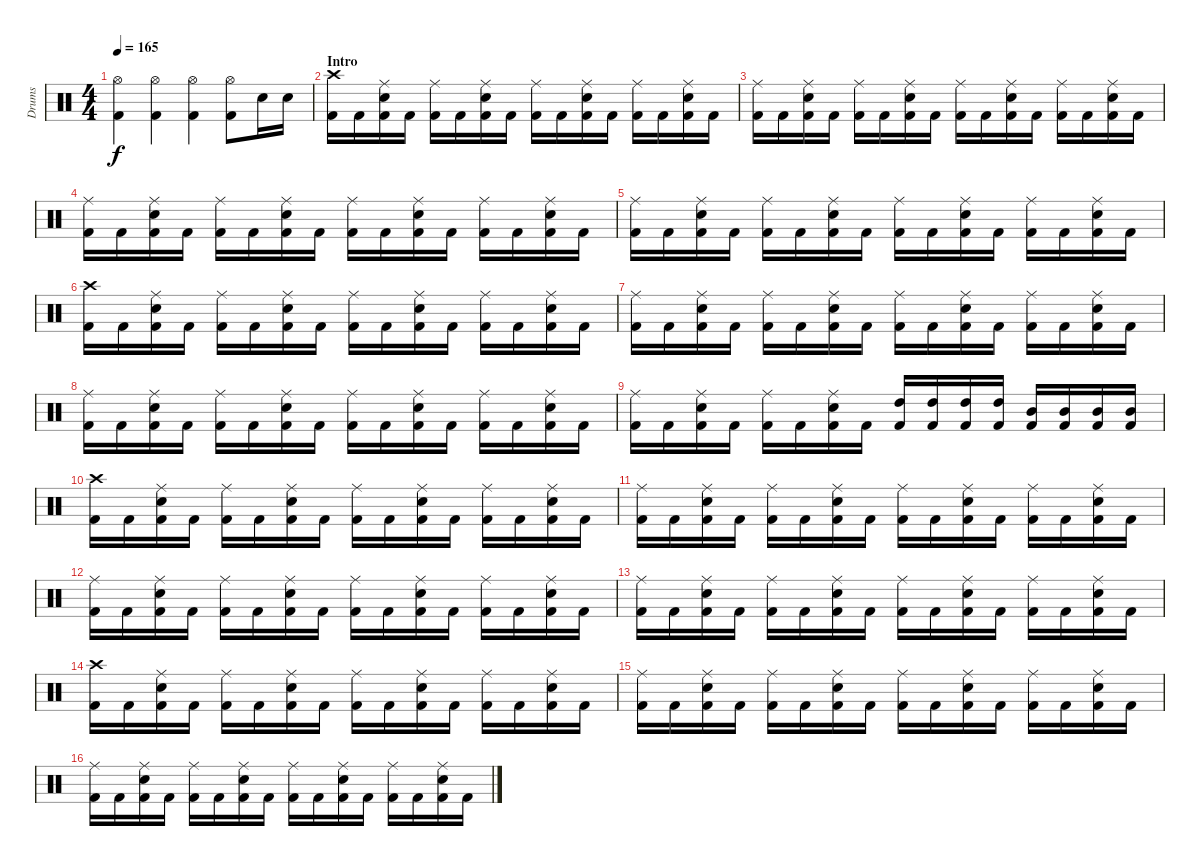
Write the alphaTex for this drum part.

\track ("Drums" "Drums") {instrument percussion}
\staff {score}
\articulation defaults
\ts (4 4)
\tempo 165
\clef neutral
\ks c
("Hi-Hat (open)" "Kick (hit) 2").4{dy f} ("Hi-Hat (open)" "Kick (hit) 2").4 ("Hi-Hat (open)" "Kick (hit) 2").4 ("Hi-Hat (open)" "Kick (hit) 2").8 "Electric Snare (hit)".16 "Electric Snare (hit)".16 |
\section ("" "Intro")
("Crash high (hit)" "Kick (hit) 2").16 "Kick (hit) 2".16 ("Ride (middle)" "Electric Snare (hit)" "Kick (hit) 2").16 "Kick (hit) 2".16 ("Ride (middle)" "Kick (hit) 2").16 "Kick (hit) 2".16 ("Ride (middle)" "Electric Snare (hit)" "Kick (hit) 2").16 "Kick (hit) 2".16 ("Ride (middle)" "Kick (hit) 2").16 "Kick (hit) 2".16 ("Ride (middle)" "Electric Snare (hit)" "Kick (hit) 2").16 "Kick (hit) 2".16 ("Ride (middle)" "Kick (hit) 2").16 "Kick (hit) 2".16 ("Ride (middle)" "Electric Snare (hit)" "Kick (hit) 2").16 "Kick (hit) 2".16 |
("Ride (middle)" "Kick (hit) 2").16 "Kick (hit) 2".16 ("Ride (middle)" "Electric Snare (hit)" "Kick (hit) 2").16 "Kick (hit) 2".16 ("Ride (middle)" "Kick (hit) 2").16 "Kick (hit) 2".16 ("Ride (middle)" "Electric Snare (hit)" "Kick (hit) 2").16 "Kick (hit) 2".16 ("Ride (middle)" "Kick (hit) 2").16 "Kick (hit) 2".16 ("Ride (middle)" "Electric Snare (hit)" "Kick (hit) 2").16 "Kick (hit) 2".16 ("Ride (middle)" "Kick (hit) 2").16 "Kick (hit) 2".16 ("Ride (middle)" "Electric Snare (hit)" "Kick (hit) 2").16 "Kick (hit) 2".16 |
("Ride (middle)" "Kick (hit) 2").16 "Kick (hit) 2".16 ("Ride (middle)" "Electric Snare (hit)" "Kick (hit) 2").16 "Kick (hit) 2".16 ("Ride (middle)" "Kick (hit) 2").16 "Kick (hit) 2".16 ("Ride (middle)" "Electric Snare (hit)" "Kick (hit) 2").16 "Kick (hit) 2".16 ("Ride (middle)" "Kick (hit) 2").16 "Kick (hit) 2".16 ("Ride (middle)" "Electric Snare (hit)" "Kick (hit) 2").16 "Kick (hit) 2".16 ("Ride (middle)" "Kick (hit) 2").16 "Kick (hit) 2".16 ("Ride (middle)" "Electric Snare (hit)" "Kick (hit) 2").16 "Kick (hit) 2".16 |
("Ride (middle)" "Kick (hit) 2").16 "Kick (hit) 2".16 ("Ride (middle)" "Electric Snare (hit)" "Kick (hit) 2").16 "Kick (hit) 2".16 ("Ride (middle)" "Kick (hit) 2").16 "Kick (hit) 2".16 ("Ride (middle)" "Electric Snare (hit)" "Kick (hit) 2").16 "Kick (hit) 2".16 ("Ride (middle)" "Kick (hit) 2").16 "Kick (hit) 2".16 ("Ride (middle)" "Electric Snare (hit)" "Kick (hit) 2").16 "Kick (hit) 2".16 ("Ride (middle)" "Kick (hit) 2").16 "Kick (hit) 2".16 ("Ride (middle)" "Electric Snare (hit)" "Kick (hit) 2").16 "Kick (hit) 2".16 |
("Crash high (hit)" "Kick (hit) 2").16 "Kick (hit) 2".16 ("Ride (middle)" "Electric Snare (hit)" "Kick (hit) 2").16 "Kick (hit) 2".16 ("Ride (middle)" "Kick (hit) 2").16 "Kick (hit) 2".16 ("Ride (middle)" "Electric Snare (hit)" "Kick (hit) 2").16 "Kick (hit) 2".16 ("Ride (middle)" "Kick (hit) 2").16 "Kick (hit) 2".16 ("Ride (middle)" "Electric Snare (hit)" "Kick (hit) 2").16 "Kick (hit) 2".16 ("Ride (middle)" "Kick (hit) 2").16 "Kick (hit) 2".16 ("Ride (middle)" "Electric Snare (hit)" "Kick (hit) 2").16 "Kick (hit) 2".16 |
("Ride (middle)" "Kick (hit) 2").16 "Kick (hit) 2".16 ("Ride (middle)" "Electric Snare (hit)" "Kick (hit) 2").16 "Kick (hit) 2".16 ("Ride (middle)" "Kick (hit) 2").16 "Kick (hit) 2".16 ("Ride (middle)" "Electric Snare (hit)" "Kick (hit) 2").16 "Kick (hit) 2".16 ("Ride (middle)" "Kick (hit) 2").16 "Kick (hit) 2".16 ("Ride (middle)" "Electric Snare (hit)" "Kick (hit) 2").16 "Kick (hit) 2".16 ("Ride (middle)" "Kick (hit) 2").16 "Kick (hit) 2".16 ("Ride (middle)" "Electric Snare (hit)" "Kick (hit) 2").16 "Kick (hit) 2".16 |
("Ride (middle)" "Kick (hit) 2").16 "Kick (hit) 2".16 ("Ride (middle)" "Electric Snare (hit)" "Kick (hit) 2").16 "Kick (hit) 2".16 ("Ride (middle)" "Kick (hit) 2").16 "Kick (hit) 2".16 ("Ride (middle)" "Electric Snare (hit)" "Kick (hit) 2").16 "Kick (hit) 2".16 ("Ride (middle)" "Kick (hit) 2").16 "Kick (hit) 2".16 ("Ride (middle)" "Electric Snare (hit)" "Kick (hit) 2").16 "Kick (hit) 2".16 ("Ride (middle)" "Kick (hit) 2").16 "Kick (hit) 2".16 ("Ride (middle)" "Electric Snare (hit)" "Kick (hit) 2").16 "Kick (hit) 2".16 |
("Ride (middle)" "Kick (hit) 2").16 "Kick (hit) 2".16 ("Ride (middle)" "Electric Snare (hit)" "Kick (hit) 2").16 "Kick (hit) 2".16 ("Ride (middle)" "Kick (hit) 2").16 "Kick (hit) 2".16 ("Ride (middle)" "Electric Snare (hit)" "Kick (hit) 2").16 "Kick (hit) 2".16 ("High Tom (hit)" "Kick (hit) 2").16 ("High Tom (hit)" "Kick (hit) 2").16 ("High Tom (hit)" "Kick (hit) 2").16 ("High Tom (hit)" "Kick (hit) 2").16 ("Mid Tom (hit)" "Kick (hit) 2").16 ("Mid Tom (hit)" "Kick (hit) 2").16 ("Mid Tom (hit)" "Kick (hit) 2").16 ("Mid Tom (hit)" "Kick (hit) 2").16 |
("Crash high (hit)" "Kick (hit) 2").16 "Kick (hit) 2".16 ("Ride (middle)" "Electric Snare (hit)" "Kick (hit) 2").16 "Kick (hit) 2".16 ("Ride (middle)" "Kick (hit) 2").16 "Kick (hit) 2".16 ("Ride (middle)" "Electric Snare (hit)" "Kick (hit) 2").16 "Kick (hit) 2".16 ("Ride (middle)" "Kick (hit) 2").16 "Kick (hit) 2".16 ("Ride (middle)" "Electric Snare (hit)" "Kick (hit) 2").16 "Kick (hit) 2".16 ("Ride (middle)" "Kick (hit) 2").16 "Kick (hit) 2".16 ("Ride (middle)" "Electric Snare (hit)" "Kick (hit) 2").16 "Kick (hit) 2".16 |
("Ride (middle)" "Kick (hit) 2").16 "Kick (hit) 2".16 ("Ride (middle)" "Electric Snare (hit)" "Kick (hit) 2").16 "Kick (hit) 2".16 ("Ride (middle)" "Kick (hit) 2").16 "Kick (hit) 2".16 ("Ride (middle)" "Electric Snare (hit)" "Kick (hit) 2").16 "Kick (hit) 2".16 ("Ride (middle)" "Kick (hit) 2").16 "Kick (hit) 2".16 ("Ride (middle)" "Electric Snare (hit)" "Kick (hit) 2").16 "Kick (hit) 2".16 ("Ride (middle)" "Kick (hit) 2").16 "Kick (hit) 2".16 ("Ride (middle)" "Electric Snare (hit)" "Kick (hit) 2").16 "Kick (hit) 2".16 |
("Ride (middle)" "Kick (hit) 2").16 "Kick (hit) 2".16 ("Ride (middle)" "Electric Snare (hit)" "Kick (hit) 2").16 "Kick (hit) 2".16 ("Ride (middle)" "Kick (hit) 2").16 "Kick (hit) 2".16 ("Ride (middle)" "Electric Snare (hit)" "Kick (hit) 2").16 "Kick (hit) 2".16 ("Ride (middle)" "Kick (hit) 2").16 "Kick (hit) 2".16 ("Ride (middle)" "Electric Snare (hit)" "Kick (hit) 2").16 "Kick (hit) 2".16 ("Ride (middle)" "Kick (hit) 2").16 "Kick (hit) 2".16 ("Ride (middle)" "Electric Snare (hit)" "Kick (hit) 2").16 "Kick (hit) 2".16 |
("Ride (middle)" "Kick (hit) 2").16 "Kick (hit) 2".16 ("Ride (middle)" "Electric Snare (hit)" "Kick (hit) 2").16 "Kick (hit) 2".16 ("Ride (middle)" "Kick (hit) 2").16 "Kick (hit) 2".16 ("Ride (middle)" "Electric Snare (hit)" "Kick (hit) 2").16 "Kick (hit) 2".16 ("Ride (middle)" "Kick (hit) 2").16 "Kick (hit) 2".16 ("Ride (middle)" "Electric Snare (hit)" "Kick (hit) 2").16 "Kick (hit) 2".16 ("Ride (middle)" "Kick (hit) 2").16 "Kick (hit) 2".16 ("Ride (middle)" "Electric Snare (hit)" "Kick (hit) 2").16 "Kick (hit) 2".16 |
("Crash high (hit)" "Kick (hit) 2").16 "Kick (hit) 2".16 ("Ride (middle)" "Electric Snare (hit)" "Kick (hit) 2").16 "Kick (hit) 2".16 ("Ride (middle)" "Kick (hit) 2").16 "Kick (hit) 2".16 ("Ride (middle)" "Electric Snare (hit)" "Kick (hit) 2").16 "Kick (hit) 2".16 ("Ride (middle)" "Kick (hit) 2").16 "Kick (hit) 2".16 ("Ride (middle)" "Electric Snare (hit)" "Kick (hit) 2").16 "Kick (hit) 2".16 ("Ride (middle)" "Kick (hit) 2").16 "Kick (hit) 2".16 ("Ride (middle)" "Electric Snare (hit)" "Kick (hit) 2").16 "Kick (hit) 2".16 |
("Ride (middle)" "Kick (hit) 2").16 "Kick (hit) 2".16 ("Ride (middle)" "Electric Snare (hit)" "Kick (hit) 2").16 "Kick (hit) 2".16 ("Ride (middle)" "Kick (hit) 2").16 "Kick (hit) 2".16 ("Ride (middle)" "Electric Snare (hit)" "Kick (hit) 2").16 "Kick (hit) 2".16 ("Ride (middle)" "Kick (hit) 2").16 "Kick (hit) 2".16 ("Ride (middle)" "Electric Snare (hit)" "Kick (hit) 2").16 "Kick (hit) 2".16 ("Ride (middle)" "Kick (hit) 2").16 "Kick (hit) 2".16 ("Ride (middle)" "Electric Snare (hit)" "Kick (hit) 2").16 "Kick (hit) 2".16 |
("Ride (middle)" "Kick (hit) 2").16 "Kick (hit) 2".16 ("Ride (middle)" "Electric Snare (hit)" "Kick (hit) 2").16 "Kick (hit) 2".16 ("Ride (middle)" "Kick (hit) 2").16 "Kick (hit) 2".16 ("Ride (middle)" "Electric Snare (hit)" "Kick (hit) 2").16 "Kick (hit) 2".16 ("Ride (middle)" "Kick (hit) 2").16 "Kick (hit) 2".16 ("Ride (middle)" "Electric Snare (hit)" "Kick (hit) 2").16 "Kick (hit) 2".16 ("Ride (middle)" "Kick (hit) 2").16 "Kick (hit) 2".16 ("Ride (middle)" "Electric Snare (hit)" "Kick (hit) 2").16 "Kick (hit) 2".16
